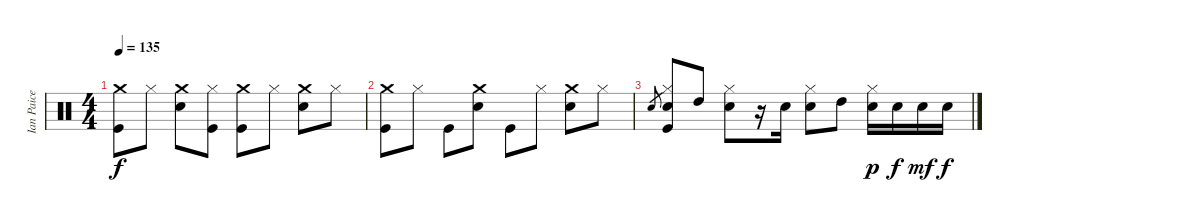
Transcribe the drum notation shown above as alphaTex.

\track ("Ian Paice" "Ian Paice") {instrument percussion}
\staff {score}
\articulation defaults
\ts (4 4)
\tempo 135
\clef neutral
\ks c
("Crash medium (hit)" "Kick (hit)").8{dy f} "Hi-Hat (closed)".8 ("Crash medium (hit)" "Electric Snare (hit)").8 ("Hi-Hat (closed)" "Kick (hit)").8 ("Crash medium (hit)" "Kick (hit)").8 "Hi-Hat (closed)".8 ("Crash medium (hit)" "Electric Snare (hit)").8 "Hi-Hat (closed)".8 |
("Crash medium (hit)" "Kick (hit)").8 "Hi-Hat (closed)".8 "Kick (hit)".8 ("Crash medium (hit)" "Electric Snare (hit)").8 "Kick (hit)".8 "Hi-Hat (closed)".8 ("Crash medium (hit)" "Electric Snare (hit)").8 "Hi-Hat (closed)".8 |
"Electric Snare (hit)".8{gr} ("Hi-Hat (closed)" "Electric Snare (hit)" "Kick (hit)").8 "High Tom (hit)".8 ("Hi-Hat (closed)" "Electric Snare (hit)").8 r.16 "Electric Snare (hit)".16 ("Hi-Hat (closed)" "Electric Snare (hit)").8 "High Tom (hit)".8 ("Hi-Hat (closed)" "Electric Snare (hit)").16{dy p} "Electric Snare (hit)".16{dy f} "Electric Snare (hit)".16{dy mf} "Electric Snare (hit)".16{dy f}
